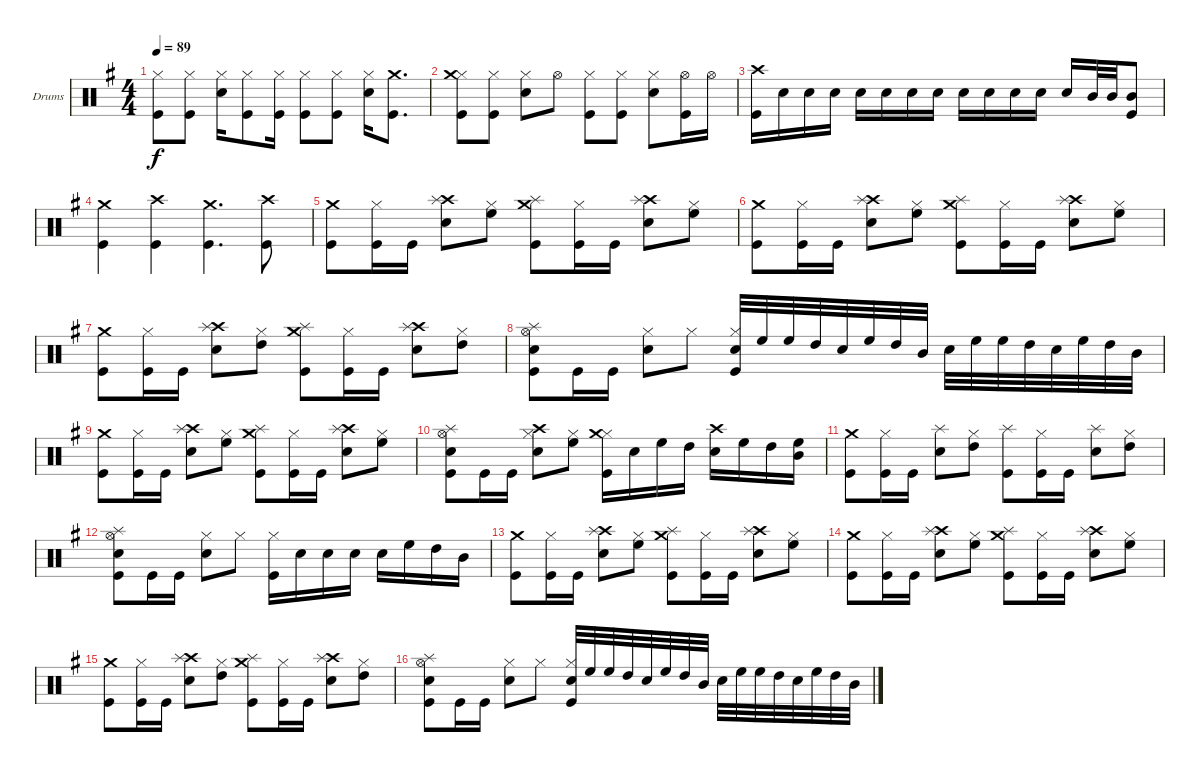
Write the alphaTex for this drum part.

\bracketExtendMode groupsimilarinstruments
\firstSystemTrackNameOrientation horizontal
\otherSystemsTrackNameOrientation horizontal
\track ("Drumkit" "Drums") {instrument percussion}
\staff {score}
\articulation defaults
\ts (4 4)
\tempo 89
\clef neutral
\scale
0.5
\ks eminor
("Kick (hit)" "Hi-Hat (closed)").8{dy f} ("Kick (hit)" "Hi-Hat (closed)").8 ("Snare (hit) 2" "Hi-Hat (closed)").16 ("Kick (hit)" "Hi-Hat (closed)").8 ("Kick (hit)" "Hi-Hat (closed)").16 ("Kick (hit)" "Hi-Hat (closed)").8 ("Kick (hit)" "Hi-Hat (closed)").8 ("Snare (hit) 2" "Hi-Hat (closed)").16 ("Kick (hit)" "Crash medium (hit)").8{d} |
\scale
0.5 ("Kick (hit)" "Hi-Hat (closed)" "Crash medium (hit)").8 ("Kick (hit)" "Hi-Hat (closed)").8 ("Snare (hit) 2" "Hi-Hat (closed)").8 "Hi-Hat (open)".8 ("Kick (hit)" "Hi-Hat (closed)").8 ("Kick (hit)" "Hi-Hat (closed)").8 ("Snare (hit) 2" "Hi-Hat (closed)").8 ("Kick (hit)" "Hi-Hat (open)").16 "Hi-Hat (open)".16 |
\scale
0.688482 ("Kick (hit)" "Crash high (hit)").16 "Snare (hit) 2".16 "Snare (hit) 2".16 "Snare (hit) 2".16 "Snare (hit) 2".16 "Snare (hit) 2".16 "Snare (hit) 2".16 "Snare (hit) 2".16 "Snare (hit) 2".16 "Snare (hit) 2".16 "Snare (hit) 2".16 "Snare (hit) 2".16 "Snare (hit) 2".16 "Mid Tom (hit)".32 "Mid Tom (hit)".32 ("Kick (hit)" "Mid Tom (hit)").8 |
\scale
0.311518 ("Kick (hit)" "Crash medium (hit)").4 ("Kick (hit)" "Crash high (hit)").4 ("Kick (hit)" "Crash medium (hit)").4{d} ("Kick (hit)" "Crash high (hit)").8 |
\scale
0.5 ("Kick (hit)" "Crash medium (hit)").8 ("Kick (hit)" "Hi-Hat (closed)").16 "Kick (hit)".16 ("Snare (hit) 2" "Crash high (hit)" "Splash (hit)").8 ("Hi-Hat (closed)" "High Floor Tom (hit)").8 ("Kick (hit)" "Crash medium (hit)" "Splash (hit)").8 ("Kick (hit)" "Hi-Hat (closed)").16 "Kick (hit)".16 ("Snare (hit) 2" "Crash high (hit)" "Splash (hit)").8 ("Hi-Hat (closed)" "High Floor Tom (hit)").8 |
\scale
0.5 ("Kick (hit)" "Crash medium (hit)").8 ("Kick (hit)" "Hi-Hat (closed)").16 "Kick (hit)".16 ("Snare (hit) 2" "Crash high (hit)" "Splash (hit)").8 ("Hi-Hat (closed)" "High Floor Tom (hit)").8 ("Kick (hit)" "Crash medium (hit)" "Splash (hit)").8 ("Kick (hit)" "Hi-Hat (closed)").16 "Kick (hit)".16 ("Snare (hit) 2" "Crash high (hit)" "Splash (hit)").8 ("Hi-Hat (closed)" "High Floor Tom (hit)").8 |
\scale
0.451852 ("Kick (hit)" "Crash medium (hit)").8 ("Kick (hit)" "Hi-Hat (closed)").16 "Kick (hit)".16 ("Snare (hit) 2" "Crash high (hit)" "Splash (hit)").8 ("Hi-Hat (closed)" "High Tom (hit)").8 ("Kick (hit)" "Crash medium (hit)" "Splash (hit)").8 ("Kick (hit)" "Hi-Hat (closed)").16 "Kick (hit)".16 ("Snare (hit) 2" "Crash high (hit)" "Splash (hit)").8 ("Hi-Hat (closed)" "High Tom (hit)").8 |
\scale
0.548148 ("Kick (hit)" "Snare (hit) 2" "Hi-Hat (open)" "Splash (hit)").8 "Kick (hit)".16 "Kick (hit)".16 ("Snare (hit) 2" "Hi-Hat (closed)").8 "Hi-Hat (closed)".8 ("Kick (hit)" "Snare (hit) 2" "Hi-Hat (closed)").32 "High Floor Tom (hit)".32 "High Floor Tom (hit)".32 "High Tom (hit)".32 "Snare (hit) 2".32 "High Floor Tom (hit)".32 "High Tom (hit)".32 "Mid Tom (hit)".32 "Snare (hit) 2".32 "High Floor Tom (hit)".32 "High Floor Tom (hit)".32 "High Tom (hit)".32 "Snare (hit) 2".32 "High Floor Tom (hit)".32 "High Tom (hit)".32 "Mid Tom (hit)".32 |
\scale
0.461248 ("Kick (hit)" "Crash medium (hit)").8 ("Kick (hit)" "Hi-Hat (closed)").16 "Kick (hit)".16 ("Snare (hit) 2" "Crash high (hit)" "Splash (hit)").8 ("Hi-Hat (closed)" "High Floor Tom (hit)").8 ("Kick (hit)" "Crash medium (hit)" "Splash (hit)").8 ("Kick (hit)" "Hi-Hat (closed)").16 "Kick (hit)".16 ("Snare (hit) 2" "Crash high (hit)" "Splash (hit)").8 ("Hi-Hat (closed)" "High Floor Tom (hit)").8 |
\scale
0.538752 ("Kick (hit)" "Snare (hit) 2" "Hi-Hat (open)" "Splash (hit)").8 "Kick (hit)".16 "Kick (hit)".16 ("Snare (hit) 2" "Hi-Hat (closed)" "Crash high (hit)").8 ("Hi-Hat (closed)" "High Floor Tom (hit)").8 ("Kick (hit)" "Hi-Hat (closed)" "Crash medium (hit)").16 "Snare (hit) 2".16 "High Floor Tom (hit)".16 "High Tom (hit)".16 ("Snare (hit) 2" "Crash high (hit)").16 "High Floor Tom (hit)".16 "High Tom (hit)".16 ("Mid Tom (hit)" "High Floor Tom (hit)").16 |
\scale
0.46747 ("Kick (hit)" "Crash medium (hit)").8 ("Kick (hit)" "Hi-Hat (closed)").16 "Kick (hit)".16 ("Snare (hit) 2" "Splash (hit)").8 ("Hi-Hat (closed)" "High Tom (hit)").8 ("Kick (hit)" "Splash (hit)").8 ("Kick (hit)" "Hi-Hat (closed)").16 "Kick (hit)".16 ("Snare (hit) 2" "Splash (hit)").8 ("Hi-Hat (closed)" "High Tom (hit)").8 |
\scale
0.53253 ("Kick (hit)" "Snare (hit) 2" "Hi-Hat (open)" "Splash (hit)").8 "Kick (hit)".16 "Kick (hit)".16 ("Snare (hit) 2" "Hi-Hat (closed)").8 "Hi-Hat (closed)".8 ("Kick (hit)" "Hi-Hat (closed)").16 "Snare (hit) 2".16 "Snare (hit) 2".16 "Snare (hit) 2".16 "Snare (hit) 2".16 "High Floor Tom (hit)".16 "High Tom (hit)".16 "Mid Tom (hit)".16 |
\scale
0.5 ("Kick (hit)" "Crash medium (hit)").8 ("Kick (hit)" "Hi-Hat (closed)").16 "Kick (hit)".16 ("Snare (hit) 2" "Crash high (hit)" "Splash (hit)").8 ("Hi-Hat (closed)" "High Floor Tom (hit)").8 ("Kick (hit)" "Crash medium (hit)" "Splash (hit)").8 ("Kick (hit)" "Hi-Hat (closed)").16 "Kick (hit)".16 ("Snare (hit) 2" "Crash high (hit)" "Splash (hit)").8 ("Hi-Hat (closed)" "High Floor Tom (hit)").8 |
\scale
0.5 ("Kick (hit)" "Crash medium (hit)").8 ("Kick (hit)" "Hi-Hat (closed)").16 "Kick (hit)".16 ("Snare (hit) 2" "Crash high (hit)" "Splash (hit)").8 ("Hi-Hat (closed)" "High Floor Tom (hit)").8 ("Kick (hit)" "Crash medium (hit)" "Splash (hit)").8 ("Kick (hit)" "Hi-Hat (closed)").16 "Kick (hit)".16 ("Snare (hit) 2" "Crash high (hit)" "Splash (hit)").8 ("Hi-Hat (closed)" "High Floor Tom (hit)").8 |
\scale
0.451852 ("Kick (hit)" "Crash medium (hit)").8 ("Kick (hit)" "Hi-Hat (closed)").16 "Kick (hit)".16 ("Snare (hit) 2" "Crash high (hit)" "Splash (hit)").8 ("Hi-Hat (closed)" "High Tom (hit)").8 ("Kick (hit)" "Crash medium (hit)" "Splash (hit)").8 ("Kick (hit)" "Hi-Hat (closed)").16 "Kick (hit)".16 ("Snare (hit) 2" "Crash high (hit)" "Splash (hit)").8 ("Hi-Hat (closed)" "High Tom (hit)").8 |
\scale
0.548148 ("Kick (hit)" "Snare (hit) 2" "Hi-Hat (open)" "Splash (hit)").8 "Kick (hit)".16 "Kick (hit)".16 ("Snare (hit) 2" "Hi-Hat (closed)").8 "Hi-Hat (closed)".8 ("Kick (hit)" "Snare (hit) 2" "Hi-Hat (closed)").32 "High Floor Tom (hit)".32 "High Floor Tom (hit)".32 "High Tom (hit)".32 "Snare (hit) 2".32 "High Floor Tom (hit)".32 "High Tom (hit)".32 "Mid Tom (hit)".32 "Snare (hit) 2".32 "High Floor Tom (hit)".32 "High Floor Tom (hit)".32 "High Tom (hit)".32 "Snare (hit) 2".32 "High Floor Tom (hit)".32 "High Tom (hit)".32 "Mid Tom (hit)".32
